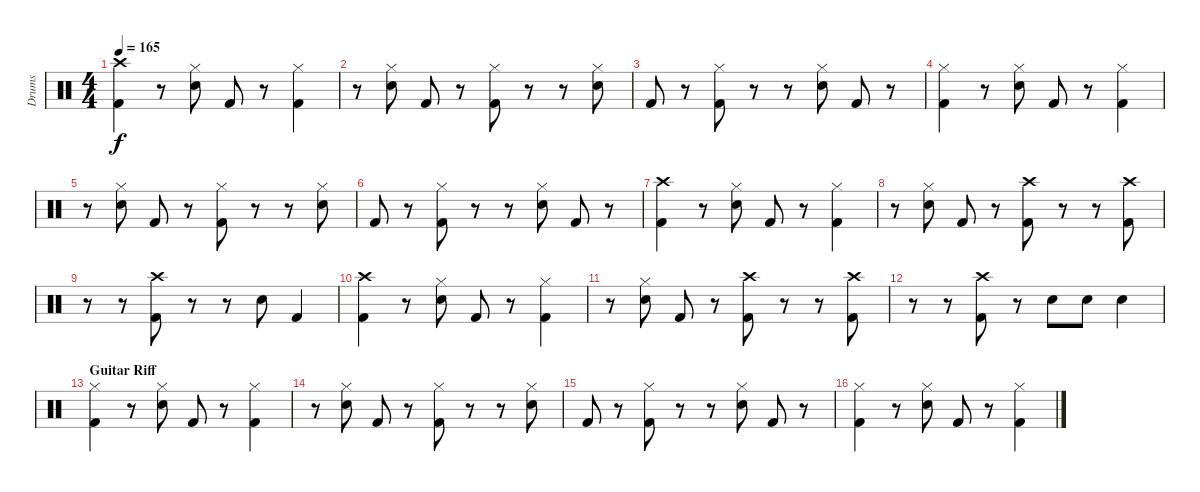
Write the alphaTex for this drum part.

\track ("Drums" "Drums") {instrument percussion}
\staff {score}
\articulation defaults
\ts (4 4)
\tempo 165
\clef neutral
\ks c
("Kick (hit) 2" "Crash high (hit)").4{dy f} r.8 ("Electric Snare (hit)" "Hi-Hat (closed)").8 "Kick (hit) 2".8 r.8 ("Kick (hit) 2" "Hi-Hat (closed)").4 |
r.8 ("Electric Snare (hit)" "Hi-Hat (closed)").8 "Kick (hit) 2".8 r.8 ("Kick (hit) 2" "Hi-Hat (closed)").8 r.8 r.8 ("Hi-Hat (closed)" "Electric Snare (hit)").8 |
"Kick (hit) 2".8 r.8 ("Hi-Hat (closed)" "Kick (hit) 2").8 r.8 r.8 ("Hi-Hat (closed)" "Electric Snare (hit)").8 "Kick (hit) 2".8 r.8 |
("Kick (hit) 2" "Hi-Hat (closed)").4 r.8 ("Electric Snare (hit)" "Hi-Hat (closed)").8 "Kick (hit) 2".8 r.8 ("Kick (hit) 2" "Hi-Hat (closed)").4 |
r.8 ("Electric Snare (hit)" "Hi-Hat (closed)").8 "Kick (hit) 2".8 r.8 ("Kick (hit) 2" "Hi-Hat (closed)").8 r.8 r.8 ("Hi-Hat (closed)" "Electric Snare (hit)").8 |
"Kick (hit) 2".8 r.8 ("Hi-Hat (closed)" "Kick (hit) 2").8 r.8 r.8 ("Hi-Hat (closed)" "Electric Snare (hit)").8 "Kick (hit) 2".8 r.8 |
("Kick (hit) 2" "Crash high (hit)").4 r.8 ("Electric Snare (hit)" "Hi-Hat (closed)").8 "Kick (hit) 2".8 r.8 ("Kick (hit) 2" "Hi-Hat (closed)").4 |
r.8 ("Electric Snare (hit)" "Hi-Hat (closed)").8 "Kick (hit) 2".8 r.8 ("Crash high (hit)" "Kick (hit) 2").8 r.8 r.8 ("Crash high (hit)" "Kick (hit) 2").8 |
r.8 r.8 ("Crash high (hit)" "Kick (hit) 2").8 r.8 r.8 "Electric Snare (hit)".8 "Kick (hit) 2".4 |
("Crash high (hit)" "Kick (hit) 2").4 r.8 ("Electric Snare (hit)" "Hi-Hat (closed)").8 "Kick (hit) 2".8 r.8 ("Kick (hit) 2" "Hi-Hat (closed)").4 |
r.8 ("Electric Snare (hit)" "Hi-Hat (closed)").8 "Kick (hit) 2".8 r.8 ("Crash high (hit)" "Kick (hit) 2").8 r.8 r.8 ("Crash high (hit)" "Kick (hit) 2").8 |
r.8 r.8 ("Crash high (hit)" "Kick (hit) 2").8 r.8 "Electric Snare (hit)".8 "Electric Snare (hit)".8 "Electric Snare (hit)".4 |
\section ("" "Guitar Riff")
("Kick (hit) 2" "Hi-Hat (closed)").4 r.8 ("Electric Snare (hit)" "Hi-Hat (closed)").8 "Kick (hit) 2".8 r.8 ("Kick (hit) 2" "Hi-Hat (closed)").4 |
r.8 ("Electric Snare (hit)" "Hi-Hat (closed)").8 "Kick (hit) 2".8 r.8 ("Kick (hit) 2" "Hi-Hat (closed)").8 r.8 r.8 ("Hi-Hat (closed)" "Electric Snare (hit)").8 |
"Kick (hit) 2".8 r.8 ("Hi-Hat (closed)" "Kick (hit) 2").8 r.8 r.8 ("Hi-Hat (closed)" "Electric Snare (hit)").8 "Kick (hit) 2".8 r.8 |
("Kick (hit) 2" "Hi-Hat (closed)").4 r.8 ("Electric Snare (hit)" "Hi-Hat (closed)").8 "Kick (hit) 2".8 r.8 ("Kick (hit) 2" "Hi-Hat (closed)").4
